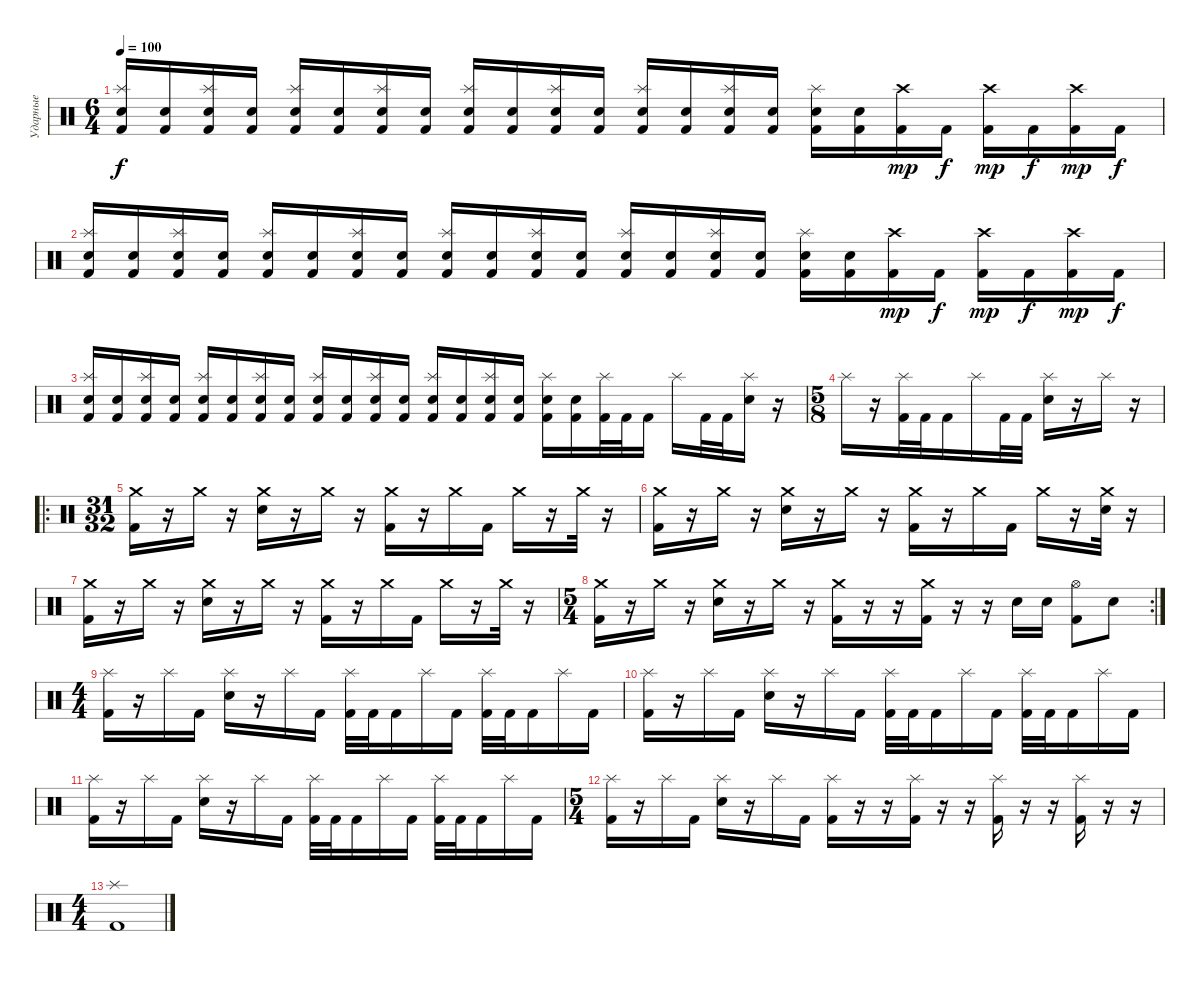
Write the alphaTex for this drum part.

\track ("Ударные" "Ударные") {instrument percussion}
\staff {score}
\articulation defaults
\ts (6 4)
\tempo 100
\clef neutral
\ks c
("Kick (hit) 2" "Splash (hit)" "Electric Snare (hit)").16{dy f} ("Kick (hit) 2" "Electric Snare (hit)").16 ("Kick (hit) 2" "Splash (hit)" "Electric Snare (hit)").16 ("Kick (hit) 2" "Electric Snare (hit)").16 ("Kick (hit) 2" "Splash (hit)" "Electric Snare (hit)").16 ("Kick (hit) 2" "Electric Snare (hit)").16 ("Splash (hit)" "Kick (hit) 2" "Electric Snare (hit)").16 ("Kick (hit) 2" "Electric Snare (hit)").16 ("Kick (hit) 2" "Splash (hit)" "Electric Snare (hit)").16 ("Kick (hit) 2" "Electric Snare (hit)").16 ("Kick (hit) 2" "Splash (hit)" "Electric Snare (hit)").16 ("Kick (hit) 2" "Electric Snare (hit)").16 ("Kick (hit) 2" "Splash (hit)" "Electric Snare (hit)").16 ("Kick (hit) 2" "Electric Snare (hit)").16 ("Kick (hit) 2" "Splash (hit)" "Electric Snare (hit)").16 ("Kick (hit) 2" "Electric Snare (hit)").16 ("Kick (hit) 2" "Splash (hit)" "Electric Snare (hit)").16 ("Kick (hit) 2" "Electric Snare (hit)").16 ("Kick (hit) 2" "Crash high (hit)").16{dy mp} "Kick (hit) 2".16{dy f} ("Kick (hit) 2" "Crash high (hit)").16{dy mp} "Kick (hit) 2".16{dy f} ("Kick (hit) 2" "Crash high (hit)").16{dy mp} "Kick (hit) 2".16{dy f} |
("Kick (hit) 2" "Splash (hit)" "Electric Snare (hit)").16 ("Kick (hit) 2" "Electric Snare (hit)").16 ("Kick (hit) 2" "Splash (hit)" "Electric Snare (hit)").16 ("Kick (hit) 2" "Electric Snare (hit)").16 ("Kick (hit) 2" "Splash (hit)" "Electric Snare (hit)").16 ("Kick (hit) 2" "Electric Snare (hit)").16 ("Splash (hit)" "Kick (hit) 2" "Electric Snare (hit)").16 ("Kick (hit) 2" "Electric Snare (hit)").16 ("Kick (hit) 2" "Splash (hit)" "Electric Snare (hit)").16 ("Kick (hit) 2" "Electric Snare (hit)").16 ("Kick (hit) 2" "Splash (hit)" "Electric Snare (hit)").16 ("Kick (hit) 2" "Electric Snare (hit)").16 ("Kick (hit) 2" "Splash (hit)" "Electric Snare (hit)").16 ("Kick (hit) 2" "Electric Snare (hit)").16 ("Kick (hit) 2" "Splash (hit)" "Electric Snare (hit)").16 ("Kick (hit) 2" "Electric Snare (hit)").16 ("Kick (hit) 2" "Splash (hit)" "Electric Snare (hit)").16 ("Kick (hit) 2" "Electric Snare (hit)").16 ("Kick (hit) 2" "Crash high (hit)").16{dy mp} "Kick (hit) 2".16{dy f} ("Kick (hit) 2" "Crash high (hit)").16{dy mp} "Kick (hit) 2".16{dy f} ("Kick (hit) 2" "Crash high (hit)").16{dy mp} "Kick (hit) 2".16{dy f} |
("Kick (hit) 2" "Splash (hit)" "Electric Snare (hit)").16 ("Kick (hit) 2" "Electric Snare (hit)").16 ("Kick (hit) 2" "Splash (hit)" "Electric Snare (hit)").16 ("Kick (hit) 2" "Electric Snare (hit)").16 ("Kick (hit) 2" "Splash (hit)" "Electric Snare (hit)").16 ("Kick (hit) 2" "Electric Snare (hit)").16 ("Splash (hit)" "Kick (hit) 2" "Electric Snare (hit)").16 ("Kick (hit) 2" "Electric Snare (hit)").16 ("Kick (hit) 2" "Splash (hit)" "Electric Snare (hit)").16 ("Kick (hit) 2" "Electric Snare (hit)").16 ("Kick (hit) 2" "Splash (hit)" "Electric Snare (hit)").16 ("Kick (hit) 2" "Electric Snare (hit)").16 ("Kick (hit) 2" "Splash (hit)" "Electric Snare (hit)").16 ("Kick (hit) 2" "Electric Snare (hit)").16 ("Kick (hit) 2" "Splash (hit)" "Electric Snare (hit)").16 ("Kick (hit) 2" "Electric Snare (hit)").16 ("Kick (hit) 2" "Splash (hit)" "Electric Snare (hit)").16 ("Kick (hit) 2" "Electric Snare (hit)").16 ("Kick (hit) 2" "Splash (hit)").32 "Kick (hit) 2".32 "Kick (hit) 2".16 "Splash (hit)".16 "Kick (hit) 2".32 "Kick (hit) 2".32 ("Electric Snare (hit)" "Splash (hit)").16 r.16 |
\ts (5 8)
"Splash (hit)".16 r.16 ("Kick (hit) 2" "Splash (hit)").32 "Kick (hit) 2".32 "Kick (hit) 2".16 "Splash (hit)".16 "Kick (hit) 2".32 "Kick (hit) 2".32 ("Electric Snare (hit)" "Splash (hit)").16 r.16 "Splash (hit)".16 r.16 |
\ro
\ts (31 32)
("Kick (hit) 2" "Crash medium (hit)").16 r.16 "Crash medium (hit)".16 r.16 ("Electric Snare (hit)" "Crash medium (hit)").16 r.16 "Crash medium (hit)".16 r.16 ("Kick (hit) 2" "Crash medium (hit)").16 r.16 "Crash medium (hit)".16 "Kick (hit) 2".16 "Crash medium (hit)".16 r.16 "Crash medium (hit)".32 r.16 |
("Kick (hit) 2" "Crash medium (hit)").16 r.16 "Crash medium (hit)".16 r.16 ("Electric Snare (hit)" "Crash medium (hit)").16 r.16 "Crash medium (hit)".16 r.16 ("Kick (hit) 2" "Crash medium (hit)").16 r.16 "Crash medium (hit)".16 "Kick (hit) 2".16 "Crash medium (hit)".16 r.16 ("Electric Snare (hit)" "Crash medium (hit)").32 r.16 |
("Kick (hit) 2" "Crash medium (hit)").16 r.16 "Crash medium (hit)".16 r.16 ("Electric Snare (hit)" "Crash medium (hit)").16 r.16 "Crash medium (hit)".16 r.16 ("Kick (hit) 2" "Crash medium (hit)").16 r.16 "Crash medium (hit)".16 "Kick (hit) 2".16 "Crash medium (hit)".16 r.16 "Crash medium (hit)".32 r.16 |
\rc 2
\ts (5 4)
("Kick (hit) 2" "Crash medium (hit)").16 r.16 "Crash medium (hit)".16 r.16 ("Electric Snare (hit)" "Crash medium (hit)").16 r.16 "Crash medium (hit)".16 r.16 ("Kick (hit) 2" "Crash medium (hit)").16 r.16 r.16 ("Kick (hit) 2" "Crash medium (hit)").16 r.16 r.16 "Electric Snare (hit)".16 "Electric Snare (hit)".16 ("Hi-Hat (open)" "Kick (hit) 2").8 "Electric Snare (hit)".8 |
\ts (4 4)
("Kick (hit) 2" "Splash (hit)").16 r.16 "Splash (hit)".16 "Kick (hit) 2".16 ("Electric Snare (hit)" "Splash (hit)").16 r.16 "Splash (hit)".16 "Kick (hit) 2".16 ("Kick (hit) 2" "Splash (hit)").32 "Kick (hit) 2".32 "Kick (hit) 2".16 "Splash (hit)".16 "Kick (hit) 2".16 ("Kick (hit) 2" "Splash (hit)").32 "Kick (hit) 2".32 "Kick (hit) 2".16 "Splash (hit)".16 "Kick (hit) 2".16 |
("Kick (hit) 2" "Splash (hit)").16 r.16 "Splash (hit)".16 "Kick (hit) 2".16 ("Electric Snare (hit)" "Splash (hit)").16 r.16 "Splash (hit)".16 "Kick (hit) 2".16 ("Kick (hit) 2" "Splash (hit)").32 "Kick (hit) 2".32 "Kick (hit) 2".16 "Splash (hit)".16 "Kick (hit) 2".16 ("Kick (hit) 2" "Splash (hit)").32 "Kick (hit) 2".32 "Kick (hit) 2".16 "Splash (hit)".16 "Kick (hit) 2".16 |
("Kick (hit) 2" "Splash (hit)").16 r.16 "Splash (hit)".16 "Kick (hit) 2".16 ("Electric Snare (hit)" "Splash (hit)").16 r.16 "Splash (hit)".16 "Kick (hit) 2".16 ("Kick (hit) 2" "Splash (hit)").32 "Kick (hit) 2".32 "Kick (hit) 2".16 "Splash (hit)".16 "Kick (hit) 2".16 ("Kick (hit) 2" "Splash (hit)").32 "Kick (hit) 2".32 "Kick (hit) 2".16 "Splash (hit)".16 "Kick (hit) 2".16 |
\ts (5 4)
("Kick (hit) 2" "Splash (hit)").16 r.16 "Splash (hit)".16 "Kick (hit) 2".16 ("Electric Snare (hit)" "Splash (hit)").16 r.16 "Splash (hit)".16 "Kick (hit) 2".16 ("Kick (hit) 2" "Splash (hit)").16 r.16 r.16 ("Kick (hit) 2" "Splash (hit)").16 r.16 r.16 ("Kick (hit) 2" "Splash (hit)").16 r.16 r.16 ("Kick (hit) 2" "Splash (hit)").16 r.16 r.16 |
\ts (4 4)
("Splash (hit)" "Kick (hit) 2").1
